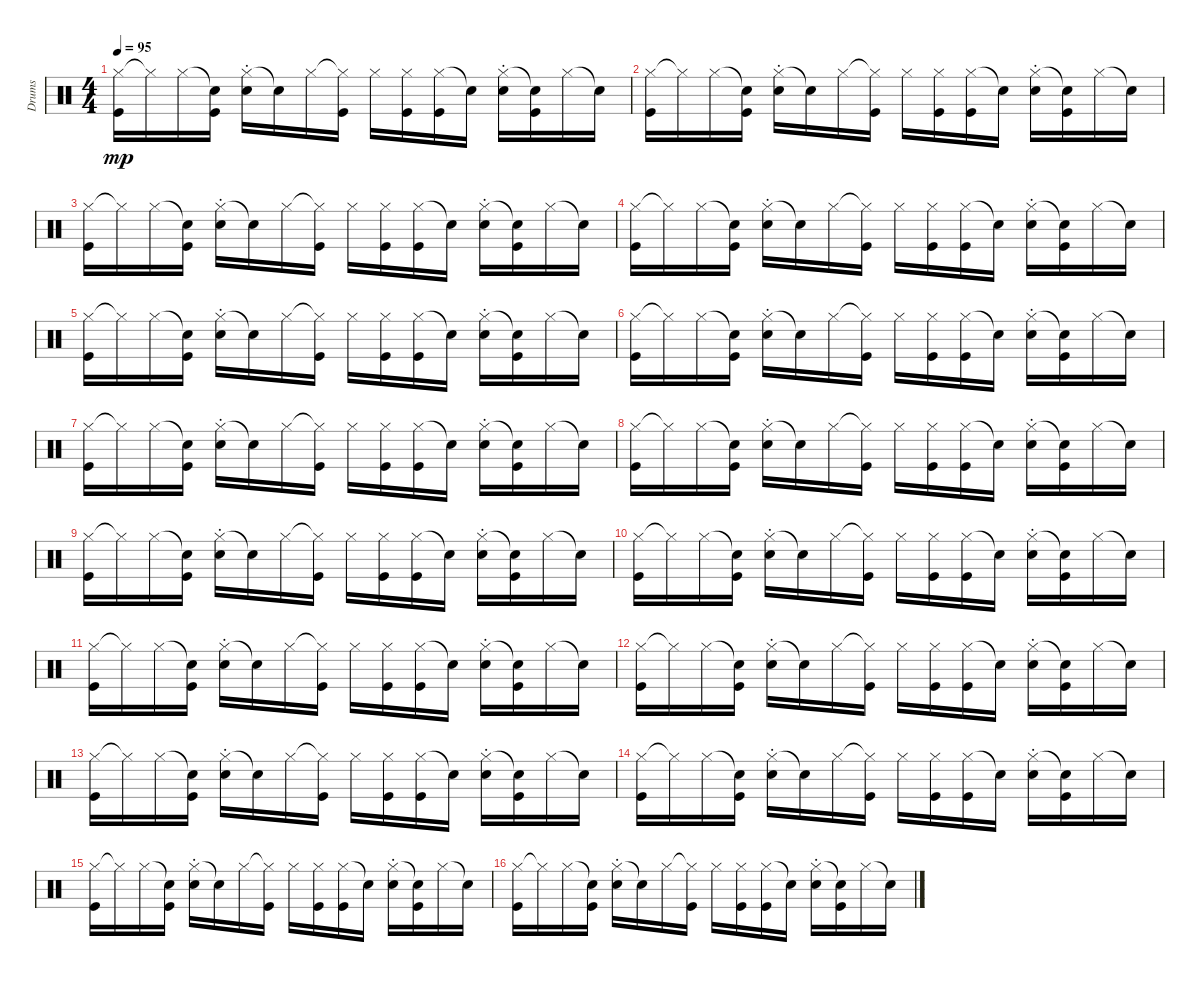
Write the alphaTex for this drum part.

\track ("Drums" "Drums") {instrument percussion}
\staff {score}
\articulation defaults
\ts (4 4)
\tempo 95
\clef neutral
\ks c
("Hi-Hat (closed)" "Kick (hit)").16{dy mp} "Hi-Hat (closed)"{t}.16 "Hi-Hat (closed)".16 ("Snare (hit)"{t} "Kick (hit)").16 ("Hi-Hat (closed)" "Snare (hit) 2"{st}).16 "Snare (hit)"{t}.16 "Hi-Hat (closed)".16 ("Hi-Hat (closed)"{t} "Kick (hit)").16 "Hi-Hat (closed)".16 ("Hi-Hat (closed)" "Kick (hit)").16 ("Hi-Hat (closed)" "Kick (hit)").16 "Snare (hit)"{t}.16 ("Hi-Hat (closed)" "Snare (hit) 2"{st}).16 ("Snare (hit)"{t} "Kick (hit)").16 "Hi-Hat (closed)".16 "Snare (hit)"{t}.16 |
("Hi-Hat (closed)" "Kick (hit)").16 "Hi-Hat (closed)"{t}.16 "Hi-Hat (closed)".16 ("Snare (hit)"{t} "Kick (hit)").16 ("Hi-Hat (closed)" "Snare (hit) 2"{st}).16 "Snare (hit)"{t}.16 "Hi-Hat (closed)".16 ("Hi-Hat (closed)"{t} "Kick (hit)").16 "Hi-Hat (closed)".16 ("Hi-Hat (closed)" "Kick (hit)").16 ("Hi-Hat (closed)" "Kick (hit)").16 "Snare (hit)"{t}.16 ("Hi-Hat (closed)" "Snare (hit) 2"{st}).16 ("Snare (hit)"{t} "Kick (hit)").16 "Hi-Hat (closed)".16 "Snare (hit)"{t}.16 |
("Hi-Hat (closed)" "Kick (hit)").16 "Hi-Hat (closed)"{t}.16 "Hi-Hat (closed)".16 ("Snare (hit)"{t} "Kick (hit)").16 ("Hi-Hat (closed)" "Snare (hit) 2"{st}).16 "Snare (hit)"{t}.16 "Hi-Hat (closed)".16 ("Hi-Hat (closed)"{t} "Kick (hit)").16 "Hi-Hat (closed)".16 ("Hi-Hat (closed)" "Kick (hit)").16 ("Hi-Hat (closed)" "Kick (hit)").16 "Snare (hit)"{t}.16 ("Hi-Hat (closed)" "Snare (hit) 2"{st}).16 ("Snare (hit)"{t} "Kick (hit)").16 "Hi-Hat (closed)".16 "Snare (hit)"{t}.16 |
("Hi-Hat (closed)" "Kick (hit)").16 "Hi-Hat (closed)"{t}.16 "Hi-Hat (closed)".16 ("Snare (hit)"{t} "Kick (hit)").16 ("Hi-Hat (closed)" "Snare (hit) 2"{st}).16 "Snare (hit)"{t}.16 "Hi-Hat (closed)".16 ("Hi-Hat (closed)"{t} "Kick (hit)").16 "Hi-Hat (closed)".16 ("Hi-Hat (closed)" "Kick (hit)").16 ("Hi-Hat (closed)" "Kick (hit)").16 "Snare (hit)"{t}.16 ("Hi-Hat (closed)" "Snare (hit) 2"{st}).16 ("Snare (hit)"{t} "Kick (hit)").16 "Hi-Hat (closed)".16 "Snare (hit)"{t}.16 |
("Hi-Hat (closed)" "Kick (hit)").16 "Hi-Hat (closed)"{t}.16 "Hi-Hat (closed)".16 ("Snare (hit)"{t} "Kick (hit)").16 ("Hi-Hat (closed)" "Snare (hit) 2"{st}).16 "Snare (hit)"{t}.16 "Hi-Hat (closed)".16 ("Hi-Hat (closed)"{t} "Kick (hit)").16 "Hi-Hat (closed)".16 ("Hi-Hat (closed)" "Kick (hit)").16 ("Hi-Hat (closed)" "Kick (hit)").16 "Snare (hit)"{t}.16 ("Hi-Hat (closed)" "Snare (hit) 2"{st}).16 ("Snare (hit)"{t} "Kick (hit)").16 "Hi-Hat (closed)".16 "Snare (hit)"{t}.16 |
("Hi-Hat (closed)" "Kick (hit)").16 "Hi-Hat (closed)"{t}.16 "Hi-Hat (closed)".16 ("Snare (hit)"{t} "Kick (hit)").16 ("Hi-Hat (closed)" "Snare (hit) 2"{st}).16 "Snare (hit)"{t}.16 "Hi-Hat (closed)".16 ("Hi-Hat (closed)"{t} "Kick (hit)").16 "Hi-Hat (closed)".16 ("Hi-Hat (closed)" "Kick (hit)").16 ("Hi-Hat (closed)" "Kick (hit)").16 "Snare (hit)"{t}.16 ("Hi-Hat (closed)" "Snare (hit) 2"{st}).16 ("Snare (hit)"{t} "Kick (hit)").16 "Hi-Hat (closed)".16 "Snare (hit)"{t}.16 |
("Hi-Hat (closed)" "Kick (hit)").16 "Hi-Hat (closed)"{t}.16 "Hi-Hat (closed)".16 ("Snare (hit)"{t} "Kick (hit)").16 ("Hi-Hat (closed)" "Snare (hit) 2"{st}).16 "Snare (hit)"{t}.16 "Hi-Hat (closed)".16 ("Hi-Hat (closed)"{t} "Kick (hit)").16 "Hi-Hat (closed)".16 ("Hi-Hat (closed)" "Kick (hit)").16 ("Hi-Hat (closed)" "Kick (hit)").16 "Snare (hit)"{t}.16 ("Hi-Hat (closed)" "Snare (hit) 2"{st}).16 ("Snare (hit)"{t} "Kick (hit)").16 "Hi-Hat (closed)".16 "Snare (hit)"{t}.16 |
("Hi-Hat (closed)" "Kick (hit)").16 "Hi-Hat (closed)"{t}.16 "Hi-Hat (closed)".16 ("Snare (hit)"{t} "Kick (hit)").16 ("Hi-Hat (closed)" "Snare (hit) 2"{st}).16 "Snare (hit)"{t}.16 "Hi-Hat (closed)".16 ("Hi-Hat (closed)"{t} "Kick (hit)").16 "Hi-Hat (closed)".16 ("Hi-Hat (closed)" "Kick (hit)").16 ("Hi-Hat (closed)" "Kick (hit)").16 "Snare (hit)"{t}.16 ("Hi-Hat (closed)" "Snare (hit) 2"{st}).16 ("Snare (hit)"{t} "Kick (hit)").16 "Hi-Hat (closed)".16 "Snare (hit)"{t}.16 |
("Hi-Hat (closed)" "Kick (hit)").16 "Hi-Hat (closed)"{t}.16 "Hi-Hat (closed)".16 ("Snare (hit)"{t} "Kick (hit)").16 ("Hi-Hat (closed)" "Snare (hit) 2"{st}).16 "Snare (hit)"{t}.16 "Hi-Hat (closed)".16 ("Hi-Hat (closed)"{t} "Kick (hit)").16 "Hi-Hat (closed)".16 ("Hi-Hat (closed)" "Kick (hit)").16 ("Hi-Hat (closed)" "Kick (hit)").16 "Snare (hit)"{t}.16 ("Hi-Hat (closed)" "Snare (hit) 2"{st}).16 ("Snare (hit)"{t} "Kick (hit)").16 "Hi-Hat (closed)".16 "Snare (hit)"{t}.16 |
("Hi-Hat (closed)" "Kick (hit)").16 "Hi-Hat (closed)"{t}.16 "Hi-Hat (closed)".16 ("Snare (hit)"{t} "Kick (hit)").16 ("Hi-Hat (closed)" "Snare (hit) 2"{st}).16 "Snare (hit)"{t}.16 "Hi-Hat (closed)".16 ("Hi-Hat (closed)"{t} "Kick (hit)").16 "Hi-Hat (closed)".16 ("Hi-Hat (closed)" "Kick (hit)").16 ("Hi-Hat (closed)" "Kick (hit)").16 "Snare (hit)"{t}.16 ("Hi-Hat (closed)" "Snare (hit) 2"{st}).16 ("Snare (hit)"{t} "Kick (hit)").16 "Hi-Hat (closed)".16 "Snare (hit)"{t}.16 |
("Hi-Hat (closed)" "Kick (hit)").16 "Hi-Hat (closed)"{t}.16 "Hi-Hat (closed)".16 ("Snare (hit)"{t} "Kick (hit)").16 ("Hi-Hat (closed)" "Snare (hit) 2"{st}).16 "Snare (hit)"{t}.16 "Hi-Hat (closed)".16 ("Hi-Hat (closed)"{t} "Kick (hit)").16 "Hi-Hat (closed)".16 ("Hi-Hat (closed)" "Kick (hit)").16 ("Hi-Hat (closed)" "Kick (hit)").16 "Snare (hit)"{t}.16 ("Hi-Hat (closed)" "Snare (hit) 2"{st}).16 ("Snare (hit)"{t} "Kick (hit)").16 "Hi-Hat (closed)".16 "Snare (hit)"{t}.16 |
("Hi-Hat (closed)" "Kick (hit)").16 "Hi-Hat (closed)"{t}.16 "Hi-Hat (closed)".16 ("Snare (hit)"{t} "Kick (hit)").16 ("Hi-Hat (closed)" "Snare (hit) 2"{st}).16 "Snare (hit)"{t}.16 "Hi-Hat (closed)".16 ("Hi-Hat (closed)"{t} "Kick (hit)").16 "Hi-Hat (closed)".16 ("Hi-Hat (closed)" "Kick (hit)").16 ("Hi-Hat (closed)" "Kick (hit)").16 "Snare (hit)"{t}.16 ("Hi-Hat (closed)" "Snare (hit) 2"{st}).16 ("Snare (hit)"{t} "Kick (hit)").16 "Hi-Hat (closed)".16 "Snare (hit)"{t}.16 |
("Hi-Hat (closed)" "Kick (hit)").16 "Hi-Hat (closed)"{t}.16 "Hi-Hat (closed)".16 ("Snare (hit)"{t} "Kick (hit)").16 ("Hi-Hat (closed)" "Snare (hit) 2"{st}).16 "Snare (hit)"{t}.16 "Hi-Hat (closed)".16 ("Hi-Hat (closed)"{t} "Kick (hit)").16 "Hi-Hat (closed)".16 ("Hi-Hat (closed)" "Kick (hit)").16 ("Hi-Hat (closed)" "Kick (hit)").16 "Snare (hit)"{t}.16 ("Hi-Hat (closed)" "Snare (hit) 2"{st}).16 ("Snare (hit)"{t} "Kick (hit)").16 "Hi-Hat (closed)".16 "Snare (hit)"{t}.16 |
("Hi-Hat (closed)" "Kick (hit)").16 "Hi-Hat (closed)"{t}.16 "Hi-Hat (closed)".16 ("Snare (hit)"{t} "Kick (hit)").16 ("Hi-Hat (closed)" "Snare (hit) 2"{st}).16 "Snare (hit)"{t}.16 "Hi-Hat (closed)".16 ("Hi-Hat (closed)"{t} "Kick (hit)").16 "Hi-Hat (closed)".16 ("Hi-Hat (closed)" "Kick (hit)").16 ("Hi-Hat (closed)" "Kick (hit)").16 "Snare (hit)"{t}.16 ("Hi-Hat (closed)" "Snare (hit) 2"{st}).16 ("Snare (hit)"{t} "Kick (hit)").16 "Hi-Hat (closed)".16 "Snare (hit)"{t}.16 |
("Hi-Hat (closed)" "Kick (hit)").16 "Hi-Hat (closed)"{t}.16 "Hi-Hat (closed)".16 ("Snare (hit)"{t} "Kick (hit)").16 ("Hi-Hat (closed)" "Snare (hit) 2"{st}).16 "Snare (hit)"{t}.16 "Hi-Hat (closed)".16 ("Hi-Hat (closed)"{t} "Kick (hit)").16 "Hi-Hat (closed)".16 ("Hi-Hat (closed)" "Kick (hit)").16 ("Hi-Hat (closed)" "Kick (hit)").16 "Snare (hit)"{t}.16 ("Hi-Hat (closed)" "Snare (hit) 2"{st}).16 ("Snare (hit)"{t} "Kick (hit)").16 "Hi-Hat (closed)".16 "Snare (hit)"{t}.16 |
("Hi-Hat (closed)" "Kick (hit)").16 "Hi-Hat (closed)"{t}.16 "Hi-Hat (closed)".16 ("Snare (hit)"{t} "Kick (hit)").16 ("Hi-Hat (closed)" "Snare (hit) 2"{st}).16 "Snare (hit)"{t}.16 "Hi-Hat (closed)".16 ("Hi-Hat (closed)"{t} "Kick (hit)").16 "Hi-Hat (closed)".16 ("Hi-Hat (closed)" "Kick (hit)").16 ("Hi-Hat (closed)" "Kick (hit)").16 "Snare (hit)"{t}.16 ("Hi-Hat (closed)" "Snare (hit) 2"{st}).16 ("Snare (hit)"{t} "Kick (hit)").16 "Hi-Hat (closed)".16 "Snare (hit)"{t}.16
